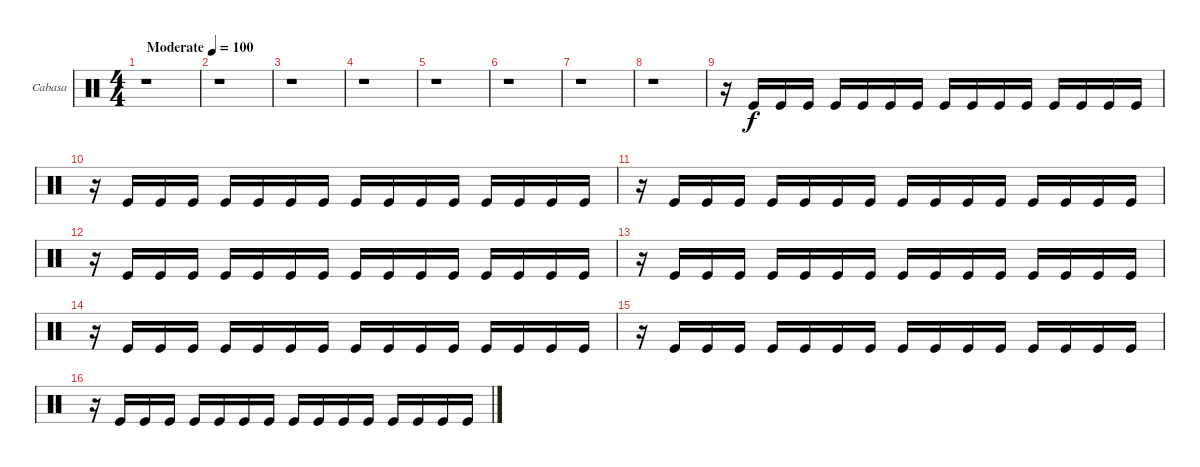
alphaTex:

\bracketExtendMode groupsimilarinstruments
\firstSystemTrackNameOrientation horizontal
\otherSystemsTrackNameOrientation horizontal
\track ("Cabasa" "Cabasa") {instrument percussion}
\staff {score}
\articulation defaults
\ts (4 4)
\beaming (8 2 2 2 2)
\tempo (100 "Moderate")
\clef neutral
\ks c
r.1{dy f} |
r.1 |
r.1 |
r.1 |
r.1 |
r.1 |
r.1 |
r.1 |
r.16 "Kick (hit)".16 "Kick (hit)".16 "Kick (hit)".16 "Kick (hit)".16 "Kick (hit)".16 "Kick (hit)".16 "Kick (hit)".16 "Kick (hit)".16 "Kick (hit)".16 "Kick (hit)".16 "Kick (hit)".16 "Kick (hit)".16 "Kick (hit)".16 "Kick (hit)".16 "Kick (hit)".16 |
r.16 "Kick (hit)".16 "Kick (hit)".16 "Kick (hit)".16 "Kick (hit)".16 "Kick (hit)".16 "Kick (hit)".16 "Kick (hit)".16 "Kick (hit)".16 "Kick (hit)".16 "Kick (hit)".16 "Kick (hit)".16 "Kick (hit)".16 "Kick (hit)".16 "Kick (hit)".16 "Kick (hit)".16 |
r.16 "Kick (hit)".16 "Kick (hit)".16 "Kick (hit)".16 "Kick (hit)".16 "Kick (hit)".16 "Kick (hit)".16 "Kick (hit)".16 "Kick (hit)".16 "Kick (hit)".16 "Kick (hit)".16 "Kick (hit)".16 "Kick (hit)".16 "Kick (hit)".16 "Kick (hit)".16 "Kick (hit)".16 |
r.16 "Kick (hit)".16 "Kick (hit)".16 "Kick (hit)".16 "Kick (hit)".16 "Kick (hit)".16 "Kick (hit)".16 "Kick (hit)".16 "Kick (hit)".16 "Kick (hit)".16 "Kick (hit)".16 "Kick (hit)".16 "Kick (hit)".16 "Kick (hit)".16 "Kick (hit)".16 "Kick (hit)".16 |
r.16 "Kick (hit)".16 "Kick (hit)".16 "Kick (hit)".16 "Kick (hit)".16 "Kick (hit)".16 "Kick (hit)".16 "Kick (hit)".16 "Kick (hit)".16 "Kick (hit)".16 "Kick (hit)".16 "Kick (hit)".16 "Kick (hit)".16 "Kick (hit)".16 "Kick (hit)".16 "Kick (hit)".16 |
r.16 "Kick (hit)".16 "Kick (hit)".16 "Kick (hit)".16 "Kick (hit)".16 "Kick (hit)".16 "Kick (hit)".16 "Kick (hit)".16 "Kick (hit)".16 "Kick (hit)".16 "Kick (hit)".16 "Kick (hit)".16 "Kick (hit)".16 "Kick (hit)".16 "Kick (hit)".16 "Kick (hit)".16 |
r.16 "Kick (hit)".16 "Kick (hit)".16 "Kick (hit)".16 "Kick (hit)".16 "Kick (hit)".16 "Kick (hit)".16 "Kick (hit)".16 "Kick (hit)".16 "Kick (hit)".16 "Kick (hit)".16 "Kick (hit)".16 "Kick (hit)".16 "Kick (hit)".16 "Kick (hit)".16 "Kick (hit)".16 |
r.16 "Kick (hit)".16 "Kick (hit)".16 "Kick (hit)".16 "Kick (hit)".16 "Kick (hit)".16 "Kick (hit)".16 "Kick (hit)".16 "Kick (hit)".16 "Kick (hit)".16 "Kick (hit)".16 "Kick (hit)".16 "Kick (hit)".16 "Kick (hit)".16 "Kick (hit)".16 "Kick (hit)".16
